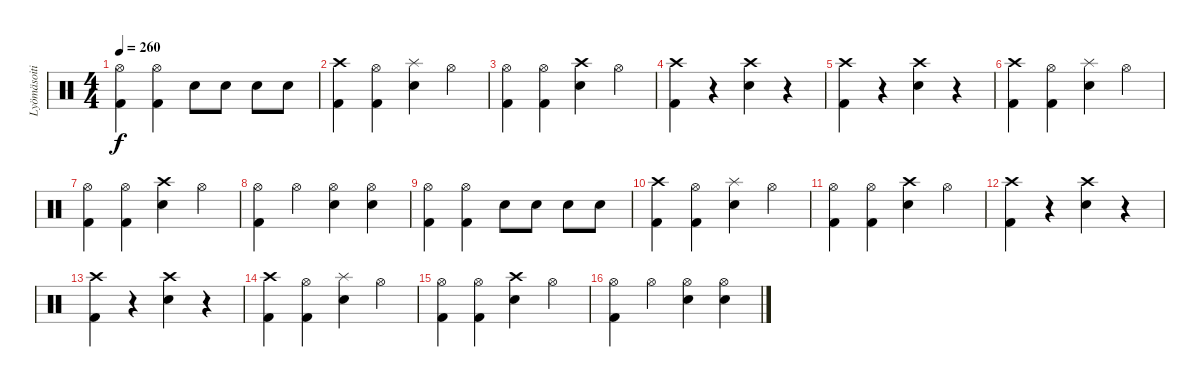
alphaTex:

\track ("Lyömäsoitin" "Lyömäsoiti") {instrument percussion}
\staff {score}
\articulation defaults
\ts (4 4)
\tempo 260
\clef neutral
\ks c
("Hi-Hat (open)" "Kick (hit) 2").4{dy f} ("Hi-Hat (open)" "Kick (hit) 2").4 "Electric Snare (hit)".8 "Electric Snare (hit)".8 "Electric Snare (hit)".8 "Electric Snare (hit)".8 |
("Crash high (hit)" "Kick (hit) 2").4 ("Hi-Hat (open)" "Kick (hit) 2").4 ("Splash (hit)" "Electric Snare (hit)").4 "Hi-Hat (open)".4 |
("Hi-Hat (open)" "Kick (hit) 2").4 ("Hi-Hat (open)" "Kick (hit) 2").4 ("Crash high (hit)" "Electric Snare (hit)").4 "Hi-Hat (open)".4 |
("Crash high (hit)" "Kick (hit) 2").4 r.4 ("Crash high (hit)" "Electric Snare (hit)").4 r.4 |
("Crash high (hit)" "Kick (hit) 2").4 r.4 ("Crash high (hit)" "Electric Snare (hit)").4 r.4 |
("Crash high (hit)" "Kick (hit) 2").4 ("Hi-Hat (open)" "Kick (hit) 2").4 ("Splash (hit)" "Electric Snare (hit)").4 "Hi-Hat (open)".4 |
("Hi-Hat (open)" "Kick (hit) 2").4 ("Hi-Hat (open)" "Kick (hit) 2").4 ("Crash high (hit)" "Electric Snare (hit)").4 "Hi-Hat (open)".4 |
("Hi-Hat (open)" "Kick (hit) 2").4 "Hi-Hat (open)".4 ("Hi-Hat (open)" "Electric Snare (hit)").4 ("Hi-Hat (open)" "Electric Snare (hit)").4 |
("Hi-Hat (open)" "Kick (hit) 2").4 ("Hi-Hat (open)" "Kick (hit) 2").4 "Electric Snare (hit)".8 "Electric Snare (hit)".8 "Electric Snare (hit)".8 "Electric Snare (hit)".8 |
("Crash high (hit)" "Kick (hit) 2").4 ("Hi-Hat (open)" "Kick (hit) 2").4 ("Splash (hit)" "Electric Snare (hit)").4 "Hi-Hat (open)".4 |
("Hi-Hat (open)" "Kick (hit) 2").4 ("Hi-Hat (open)" "Kick (hit) 2").4 ("Crash high (hit)" "Electric Snare (hit)").4 "Hi-Hat (open)".4 |
("Crash high (hit)" "Kick (hit) 2").4 r.4 ("Crash high (hit)" "Electric Snare (hit)").4 r.4 |
("Crash high (hit)" "Kick (hit) 2").4 r.4 ("Crash high (hit)" "Electric Snare (hit)").4 r.4 |
("Crash high (hit)" "Kick (hit) 2").4 ("Hi-Hat (open)" "Kick (hit) 2").4 ("Splash (hit)" "Electric Snare (hit)").4 "Hi-Hat (open)".4 |
("Hi-Hat (open)" "Kick (hit) 2").4 ("Hi-Hat (open)" "Kick (hit) 2").4 ("Crash high (hit)" "Electric Snare (hit)").4 "Hi-Hat (open)".4 |
("Hi-Hat (open)" "Kick (hit) 2").4 "Hi-Hat (open)".4 ("Hi-Hat (open)" "Electric Snare (hit)").4 ("Hi-Hat (open)" "Electric Snare (hit)").4
